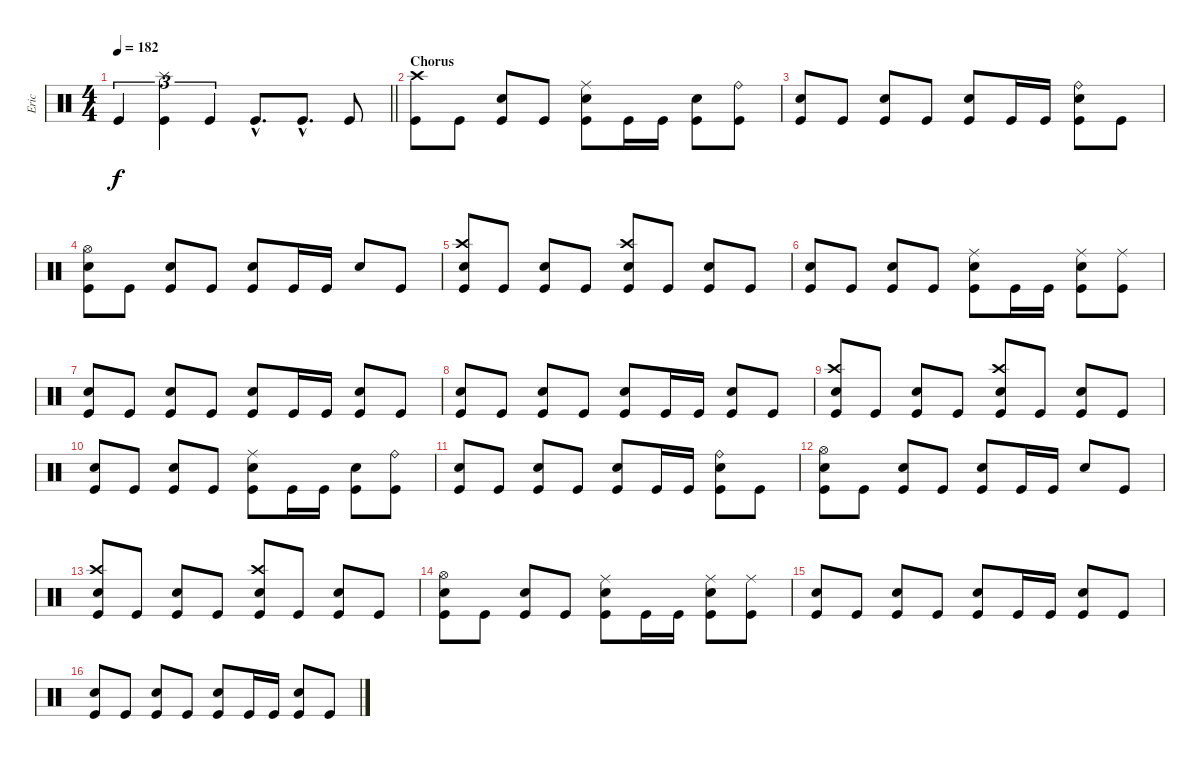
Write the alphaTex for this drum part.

\track ("Eric" "Eric") {instrument percussion}
\staff {score}
\articulation defaults
\ts (4 4)
\tempo 182
\clef neutral
\barLineRight lightlight
\ks c "Kick (hit)".4{tu (3 2) dy f}
("Splash (hit)" "Kick (hit)").4{tu (3 2)} "Kick (hit)".4{tu (3 2)} "Kick (hit)"{hac}.8{d} "Kick (hit)"{hac}.8{d} "Kick (hit)".8 |
\section ("" "Chorus")
("Crash high (hit)" "Kick (hit)").8 "Kick (hit)".8 ("Snare (hit) 2" "Kick (hit)").8 "Kick (hit)".8 ("Ride (middle)" "Snare (hit) 2" "Kick (hit)").8 "Kick (hit)".16 "Kick (hit)".16 ("Snare (hit) 2" "Kick (hit)").8 ("Ride (bell)" "Kick (hit)").8 |
("Snare (hit) 2" "Kick (hit)").8 "Kick (hit)".8 ("Snare (hit) 2" "Kick (hit)").8 "Kick (hit)".8 ("Snare (hit) 2" "Kick (hit)").8 "Kick (hit)".16 "Kick (hit)".16 ("Ride (bell)" "Snare (hit) 2" "Kick (hit)").8 "Kick (hit)".8 |
("Hi-Hat (open)" "Snare (hit) 2" "Kick (hit)").8 "Kick (hit)".8 ("Snare (hit) 2" "Kick (hit)").8 "Kick (hit)".8 ("Snare (hit) 2" "Kick (hit)").8 "Kick (hit)".16 "Kick (hit)".16 "Snare (hit) 2".8 "Kick (hit)".8 |
("Crash high (hit)" "Snare (hit) 2" "Kick (hit)").8 "Kick (hit)".8 ("Snare (hit) 2" "Kick (hit)").8 "Kick (hit)".8 ("Crash high (hit)" "Snare (hit) 2" "Kick (hit)").8 "Kick (hit)".8 ("Snare (hit) 2" "Kick (hit)").8 "Kick (hit)".8 |
("Snare (hit) 2" "Kick (hit)").8 "Kick (hit)".8 ("Snare (hit) 2" "Kick (hit)").8 "Kick (hit)".8 ("Ride (middle)" "Snare (hit) 2" "Kick (hit)").8 "Kick (hit)".16 "Kick (hit)".16 ("Ride (middle)" "Snare (hit) 2" "Kick (hit)").8 ("Ride (middle)" "Kick (hit)").8 |
("Snare (hit) 2" "Kick (hit)").8 "Kick (hit)".8 ("Snare (hit) 2" "Kick (hit)").8 "Kick (hit)".8 ("Snare (hit) 2" "Kick (hit)").8 "Kick (hit)".16 "Kick (hit)".16 ("Snare (hit) 2" "Kick (hit)").8 "Kick (hit)".8 |
("Snare (hit) 2" "Kick (hit)").8 "Kick (hit)".8 ("Snare (hit) 2" "Kick (hit)").8 "Kick (hit)".8 ("Snare (hit) 2" "Kick (hit)").8 "Kick (hit)".16 "Kick (hit)".16 ("Snare (hit) 2" "Kick (hit)").8 "Kick (hit)".8 |
("Crash high (hit)" "Snare (hit) 2" "Kick (hit)").8 "Kick (hit)".8 ("Snare (hit) 2" "Kick (hit)").8 "Kick (hit)".8 ("Crash high (hit)" "Snare (hit) 2" "Kick (hit)").8 "Kick (hit)".8 ("Snare (hit) 2" "Kick (hit)").8 "Kick (hit)".8 |
("Snare (hit) 2" "Kick (hit)").8 "Kick (hit)".8 ("Snare (hit) 2" "Kick (hit)").8 "Kick (hit)".8 ("Ride (middle)" "Snare (hit) 2" "Kick (hit)").8 "Kick (hit)".16 "Kick (hit)".16 ("Snare (hit) 2" "Kick (hit)").8 ("Ride (bell)" "Kick (hit)").8 |
("Snare (hit) 2" "Kick (hit)").8 "Kick (hit)".8 ("Snare (hit) 2" "Kick (hit)").8 "Kick (hit)".8 ("Snare (hit) 2" "Kick (hit)").8 "Kick (hit)".16 "Kick (hit)".16 ("Ride (bell)" "Snare (hit) 2" "Kick (hit)").8 "Kick (hit)".8 |
("Hi-Hat (open)" "Snare (hit) 2" "Kick (hit)").8 "Kick (hit)".8 ("Snare (hit) 2" "Kick (hit)").8 "Kick (hit)".8 ("Snare (hit) 2" "Kick (hit)").8 "Kick (hit)".16 "Kick (hit)".16 "Snare (hit) 2".8 "Kick (hit)".8 |
("Crash high (hit)" "Snare (hit) 2" "Kick (hit)").8 "Kick (hit)".8 ("Snare (hit) 2" "Kick (hit)").8 "Kick (hit)".8 ("Crash high (hit)" "Snare (hit) 2" "Kick (hit)").8 "Kick (hit)".8 ("Snare (hit) 2" "Kick (hit)").8 "Kick (hit)".8 |
("Hi-Hat (open)" "Snare (hit) 2" "Kick (hit)").8 "Kick (hit)".8 ("Snare (hit) 2" "Kick (hit)").8 "Kick (hit)".8 ("Ride (middle)" "Snare (hit) 2" "Kick (hit)").8 "Kick (hit)".16 "Kick (hit)".16 ("Ride (middle)" "Snare (hit) 2" "Kick (hit)").8 ("Ride (middle)" "Kick (hit)").8 |
("Snare (hit) 2" "Kick (hit)").8 "Kick (hit)".8 ("Snare (hit) 2" "Kick (hit)").8 "Kick (hit)".8 ("Snare (hit) 2" "Kick (hit)").8 "Kick (hit)".16 "Kick (hit)".16 ("Snare (hit) 2" "Kick (hit)").8 "Kick (hit)".8 |
("Snare (hit) 2" "Kick (hit)").8 "Kick (hit)".8 ("Snare (hit) 2" "Kick (hit)").8 "Kick (hit)".8 ("Snare (hit) 2" "Kick (hit)").8 "Kick (hit)".16 "Kick (hit)".16 ("Snare (hit) 2" "Kick (hit)").8 "Kick (hit)".8
